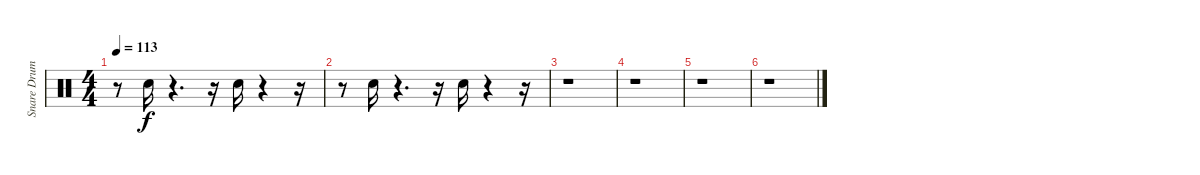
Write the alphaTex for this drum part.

\track ("Snare Drum" "Snare Drum") {instrument percussion}
\staff {score}
\articulation defaults
\ts (4 4)
\tempo 113
\clef neutral
\ks c
r.8{dy f} "Snare (hit) 2".16 r.4{d} r.16 "Snare (hit) 2".16 r.4 r.16 |
r.8 "Snare (hit) 2".16 r.4{d} r.16 "Snare (hit) 2".16 r.4 r.16 |
r.1 |
r.1 |
r.1 |
r.1
